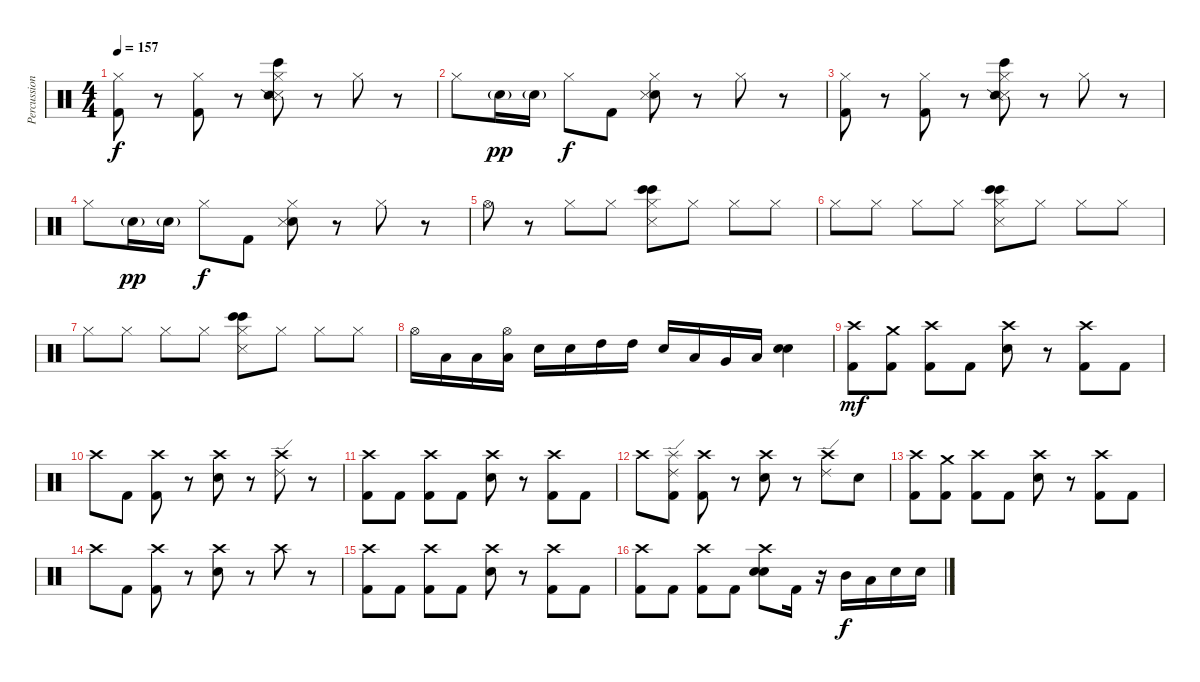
\track ("Percussions" "Percussion") {instrument percussion}
\staff {score}
\articulation defaults
\ts (4 4)
\tempo 157
\clef neutral
\ks c
("Hi-Hat (closed)" "Kick (hit) 2").8{dy f} r.8 ("Hi-Hat (closed)" "Kick (hit) 2").8 r.8 ("Hi-Hat (closed)" "Bongo High (hit)" "Metronome (hit)" "Snare (side stick) 2").8 r.8 "Hi-Hat (closed)".8 r.8 |
"Hi-Hat (closed)".8 "Electric Snare (hit)"{g}.16{dy pp} "Electric Snare (hit)"{g}.16 "Hi-Hat (closed)".8{dy f} "Kick (hit) 2".8 ("Hi-Hat (closed)" "Snare (hit) 2" "Snare (side stick) 3").8 r.8 "Hi-Hat (closed)".8 r.8 |
("Hi-Hat (closed)" "Kick (hit) 2").8 r.8 ("Hi-Hat (closed)" "Kick (hit) 2").8 r.8 ("Hi-Hat (closed)" "Bongo High (hit)" "Metronome (hit)" "Snare (side stick) 2").8 r.8 "Hi-Hat (closed)".8 r.8 |
"Hi-Hat (closed)".8 "Electric Snare (hit)"{g}.16{dy pp} "Electric Snare (hit)"{g}.16 "Hi-Hat (closed)".8{dy f} "Kick (hit) 2".8 ("Hi-Hat (closed)" "Snare (hit) 2" "Snare (side stick) 3").8 r.8 "Hi-Hat (closed)".8 r.8 |
"Hi-Hat (open)".8 r.8 "Hi-Hat (closed)".8 "Hi-Hat (closed)".8 ("Bongo High (hit)" "Snare (side stick) 3" "Hi-Hat (closed)" "Bongo High (hit)").8 "Hi-Hat (closed)".8 "Hi-Hat (closed)".8 "Hi-Hat (closed)".8 |
"Hi-Hat (closed)".8 "Hi-Hat (closed)".8 "Hi-Hat (closed)".8 "Hi-Hat (closed)".8 ("Bongo High (hit)" "Snare (side stick) 3" "Hi-Hat (closed)" "Bongo High (hit)").8 "Hi-Hat (closed)".8 "Hi-Hat (closed)".8 "Hi-Hat (closed)".8 |
"Hi-Hat (closed)".8 "Hi-Hat (closed)".8 "Hi-Hat (closed)".8 "Hi-Hat (closed)".8 ("Bongo High (hit)" "Snare (side stick) 3" "Hi-Hat (closed)" "Bongo High (hit)").8 "Hi-Hat (closed)".8 "Hi-Hat (closed)".8 "Hi-Hat (closed)".8 |
"Hi-Hat (open)".16 "Low Tom (hit)".16 "Low Tom (hit)".16 ("Hi-Hat (open)" "Low Tom (hit)").16 "Electric Snare (hit)".16 "Electric Snare (hit)".16 "High Tom (hit)".16 "High Tom (hit)".16 "Electric Snare (hit)".16 "Low Tom (hit)".16 "Very Low Tom (hit)".16 "Low Floor Tom (hit)".16 ("Snare (hit) 2" "Electric Snare (hit)").4 |
("Crash high (hit)" "Kick (hit) 2").8{dy mf} ("Crash medium (hit)" "Kick (hit) 2").8 ("Crash high (hit)" "Kick (hit) 2").8 "Kick (hit) 2".8 ("Crash high (hit)" "Electric Snare (hit)").8 r.8 ("Crash high (hit)" "Kick (hit) 2").8 "Kick (hit) 2".8 |
"Crash high (hit)".8 "Kick (hit) 2".8 ("Crash high (hit)" "Kick (hit) 2").8 r.8 ("Crash high (hit)" "Electric Snare (hit)").8 r.8 ("Ride (edge) 2" "Crash high (hit)").8 r.8 |
("Crash high (hit)" "Kick (hit) 2").8 "Kick (hit) 2".8 ("Crash high (hit)" "Kick (hit) 2").8 "Kick (hit) 2".8 ("Crash high (hit)" "Electric Snare (hit)").8 r.8 ("Crash high (hit)" "Kick (hit) 2").8 "Kick (hit) 2".8 |
"Crash high (hit)".8 ("Ride (edge) 2" "Splash (hit)" "Kick (hit) 2").8 ("Crash high (hit)" "Kick (hit) 2").8 r.8 ("Crash high (hit)" "Electric Snare (hit)").8 r.8 ("Ride (edge) 2" "Crash high (hit)").8 "Electric Snare (hit)".8 |
("Crash high (hit)" "Kick (hit) 2").8 ("Crash medium (hit)" "Kick (hit) 2").8 ("Crash high (hit)" "Kick (hit) 2").8 "Kick (hit) 2".8 ("Crash high (hit)" "Electric Snare (hit)").8 r.8 ("Crash high (hit)" "Kick (hit) 2").8 "Kick (hit) 2".8 |
"Crash high (hit)".8 "Kick (hit) 2".8 ("Crash high (hit)" "Kick (hit) 2").8 r.8 ("Crash high (hit)" "Electric Snare (hit)").8 r.8 "Crash high (hit)".8 r.8 |
("Crash high (hit)" "Kick (hit) 2").8 "Kick (hit) 2".8 ("Crash high (hit)" "Kick (hit) 2").8 "Kick (hit) 2".8 ("Crash high (hit)" "Electric Snare (hit)").8 r.8 ("Crash high (hit)" "Kick (hit) 2").8 "Kick (hit) 2".8 |
("Crash high (hit)" "Kick (hit) 2").8 "Kick (hit) 2".8 ("Crash high (hit)" "Kick (hit) 2").8 "Kick (hit) 2".8 ("Crash high (hit)" "Snare (hit) 2" "Electric Snare (hit)").8 "Kick (hit) 2".16 r.16 "Mid Tom (hit)".16{dy f} "Low Tom (hit)".16 "Electric Snare (hit)".16 "Electric Snare (hit)".16
